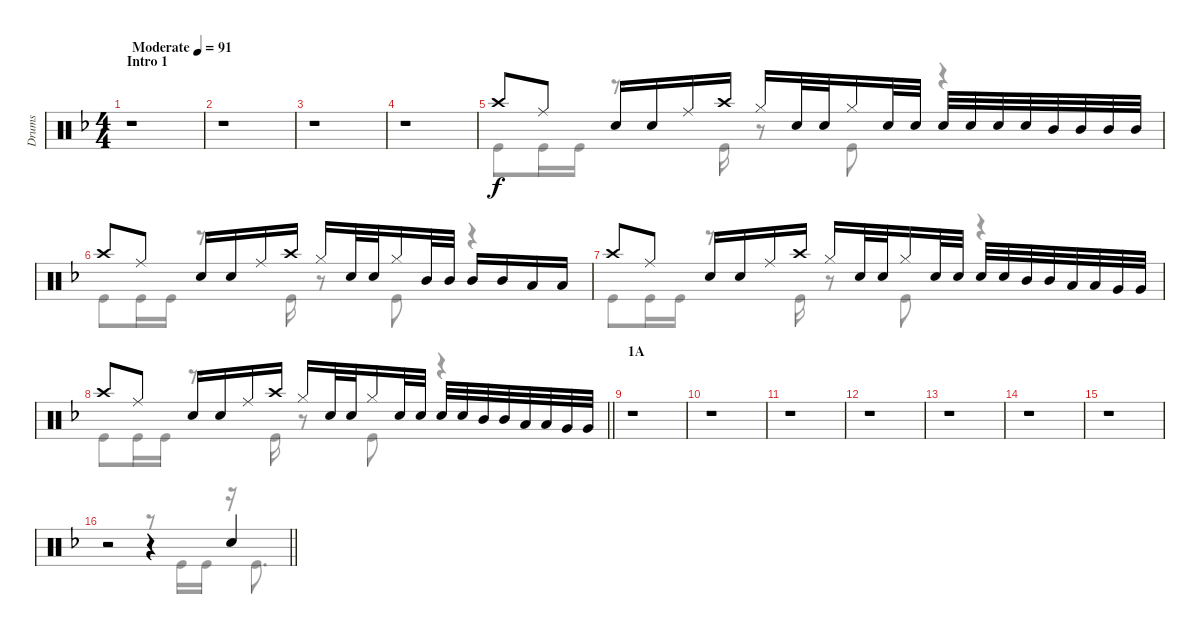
\track ("Drums" "Drums") {instrument percussion}
\staff {score}
\articulation defaults
\voice
\ts (4 4)
\section ("" "Intro 1")
\tempo (91 "Moderate")
\clef neutral
\ks f
r.1{dy f} |
r.1 |
r.1 |
r.1 |
"Crash high (hit)".8 "Ride (middle)".8 "Snare (hit) 2".16 "Snare (hit) 2".16 "Ride (middle)".16 "Crash high (hit)".16 "Hi-Hat (closed)".16 "Snare (hit) 2".32 "Snare (hit) 2".32 "Hi-Hat (closed)".16 "Snare (hit) 2".32 "Snare (hit) 2".32 "Snare (hit) 2".32 "Snare (hit) 2".32 "Snare (hit) 2".32 "Snare (hit) 2".32 "Mid Tom (hit)".32 "Mid Tom (hit)".32 "Mid Tom (hit)".32 "Mid Tom (hit)".32 |
"Crash high (hit)".8 "Ride (middle)".8 "Snare (hit) 2".16 "Snare (hit) 2".16 "Ride (middle)".16 "Crash high (hit)".16 "Hi-Hat (closed)".16 "Snare (hit) 2".32 "Snare (hit) 2".32 "Hi-Hat (closed)".16 "Mid Tom (hit)".32 "Mid Tom (hit)".32 "Mid Tom (hit)".16 "Mid Tom (hit)".16 "Low Tom (hit)".16 "Low Tom (hit)".16 |
"Crash high (hit)".8 "Ride (middle)".8 "Snare (hit) 2".16 "Snare (hit) 2".16 "Ride (middle)".16 "Crash high (hit)".16 "Hi-Hat (closed)".16 "Snare (hit) 2".32 "Snare (hit) 2".32 "Hi-Hat (closed)".16 "Snare (hit) 2".32 "Snare (hit) 2".32 "Snare (hit) 2".32 "Snare (hit) 2".32 "Mid Tom (hit)".32 "Mid Tom (hit)".32 "Low Tom (hit)".32 "Low Tom (hit)".32 "Very Low Tom (hit)".32 "Very Low Tom (hit)".32 |
\barLineRight lightlight "Crash high (hit)".8 "Ride (middle)".8 "Snare (hit) 2".16 "Snare (hit) 2".16 "Ride (middle)".16 "Crash high (hit)".16 "Hi-Hat (closed)".16 "Snare (hit) 2".32 "Snare (hit) 2".32 "Hi-Hat (closed)".16 "Snare (hit) 2".32 "Snare (hit) 2".32 "Snare (hit) 2".32 "Snare (hit) 2".32 "Mid Tom (hit)".32 "Mid Tom (hit)".32 "Low Tom (hit)".32 "Low Tom (hit)".32 "Very Low Tom (hit)".32 "Very Low Tom (hit)".32
|
\section ("" "1A")
r.1 |
r.1 |
r.1 |
r.1 |
r.1 |
r.1 |
r.1 |
\barLineRight lightlight
r.2 r.4 "Snare (hit) 2".4
\voice
\clef neutral
\ottava regular
\simile none
\ks f
r.1{dy f} |
r.1 |
r.1 |
r.1 |
"Kick (hit)".8 "Kick (hit)".16 "Kick (hit)".16 r.8{d} "Kick (hit)".16 r.8 "Kick (hit)".8 r.4 |
"Kick (hit)".8 "Kick (hit)".16 "Kick (hit)".16 r.8{d} "Kick (hit)".16 r.8 "Kick (hit)".8 r.4 |
"Kick (hit)".8 "Kick (hit)".16 "Kick (hit)".16 r.8{d} "Kick (hit)".16 r.8 "Kick (hit)".8 r.4 |
\barLineRight lightlight "Kick (hit)".8 "Kick (hit)".16 "Kick (hit)".16
r.8{d} "Kick (hit)".16 r.8 "Kick (hit)".8 r.4 |
r.1 |
r.1 |
r.1 |
r.1 |
r.1 |
r.1 |
r.1 |
\barLineRight lightlight
r.2 r.8 "Kick (hit)".16 "Kick (hit)".16 r.16 "Kick (hit)".8{d}
